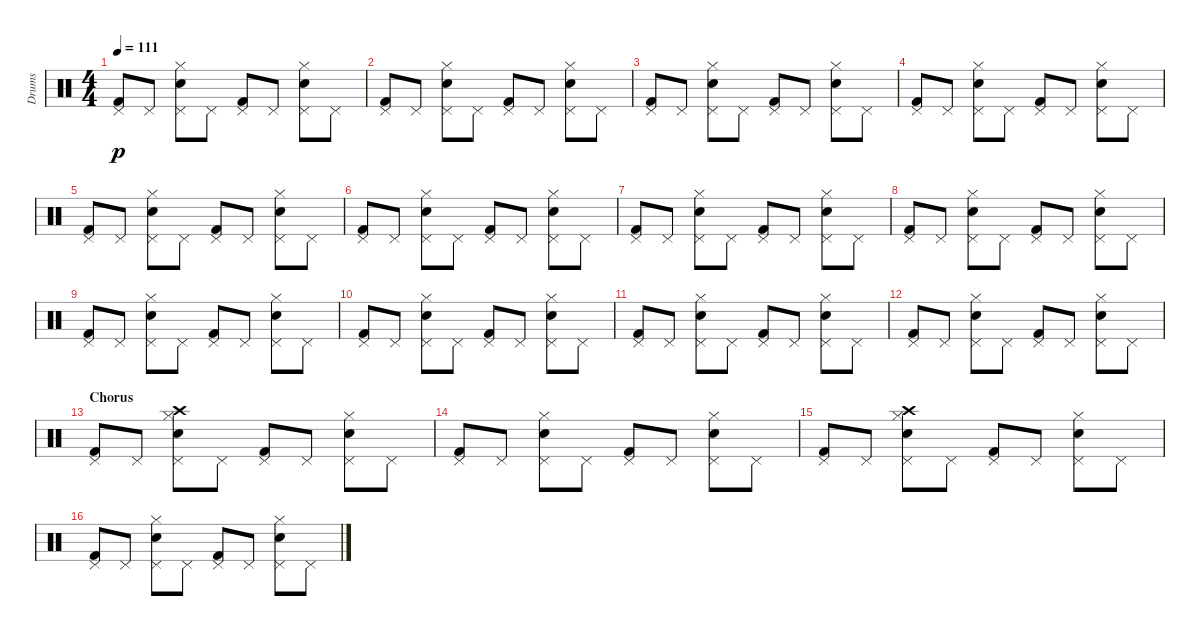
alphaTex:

\track ("Drums" "Drums") {instrument percussion}
\staff {score}
\articulation defaults
\ts (4 4)
\tempo 111
\clef neutral
\ks c
("Pedal Hi-Hat (hit)" "Kick (hit) 2").8{dy p} "Pedal Hi-Hat (hit)".8 ("Pedal Hi-Hat (hit)" "Hand Clap (hit)" "Hi-Hat (closed)").8 "Pedal Hi-Hat (hit)".8 ("Pedal Hi-Hat (hit)" "Kick (hit) 2").8 "Pedal Hi-Hat (hit)".8 ("Pedal Hi-Hat (hit)" "Hand Clap (hit)" "Hi-Hat (closed)").8 "Pedal Hi-Hat (hit)".8 |
("Pedal Hi-Hat (hit)" "Kick (hit) 2").8 "Pedal Hi-Hat (hit)".8 ("Pedal Hi-Hat (hit)" "Hand Clap (hit)" "Hi-Hat (closed)").8 "Pedal Hi-Hat (hit)".8 ("Pedal Hi-Hat (hit)" "Kick (hit) 2").8 "Pedal Hi-Hat (hit)".8 ("Pedal Hi-Hat (hit)" "Hand Clap (hit)" "Hi-Hat (closed)").8 "Pedal Hi-Hat (hit)".8 |
("Pedal Hi-Hat (hit)" "Kick (hit) 2").8 "Pedal Hi-Hat (hit)".8 ("Pedal Hi-Hat (hit)" "Hand Clap (hit)" "Hi-Hat (closed)").8 "Pedal Hi-Hat (hit)".8 ("Pedal Hi-Hat (hit)" "Kick (hit) 2").8 "Pedal Hi-Hat (hit)".8 ("Pedal Hi-Hat (hit)" "Hand Clap (hit)" "Hi-Hat (closed)").8 "Pedal Hi-Hat (hit)".8 |
("Pedal Hi-Hat (hit)" "Kick (hit) 2").8 "Pedal Hi-Hat (hit)".8 ("Pedal Hi-Hat (hit)" "Hand Clap (hit)" "Hi-Hat (closed)").8 "Pedal Hi-Hat (hit)".8 ("Pedal Hi-Hat (hit)" "Kick (hit) 2").8 "Pedal Hi-Hat (hit)".8 ("Pedal Hi-Hat (hit)" "Hand Clap (hit)" "Hi-Hat (closed)").8 "Pedal Hi-Hat (hit)".8 |
("Pedal Hi-Hat (hit)" "Kick (hit) 2").8 "Pedal Hi-Hat (hit)".8 ("Pedal Hi-Hat (hit)" "Hand Clap (hit)" "Hi-Hat (closed)").8 "Pedal Hi-Hat (hit)".8 ("Pedal Hi-Hat (hit)" "Kick (hit) 2").8 "Pedal Hi-Hat (hit)".8 ("Pedal Hi-Hat (hit)" "Hand Clap (hit)" "Hi-Hat (closed)").8 "Pedal Hi-Hat (hit)".8 |
("Pedal Hi-Hat (hit)" "Kick (hit) 2").8 "Pedal Hi-Hat (hit)".8 ("Pedal Hi-Hat (hit)" "Hand Clap (hit)" "Hi-Hat (closed)").8 "Pedal Hi-Hat (hit)".8 ("Pedal Hi-Hat (hit)" "Kick (hit) 2").8 "Pedal Hi-Hat (hit)".8 ("Pedal Hi-Hat (hit)" "Hand Clap (hit)" "Hi-Hat (closed)").8 "Pedal Hi-Hat (hit)".8 |
("Pedal Hi-Hat (hit)" "Kick (hit) 2").8 "Pedal Hi-Hat (hit)".8 ("Pedal Hi-Hat (hit)" "Hand Clap (hit)" "Hi-Hat (closed)").8 "Pedal Hi-Hat (hit)".8 ("Pedal Hi-Hat (hit)" "Kick (hit) 2").8 "Pedal Hi-Hat (hit)".8 ("Pedal Hi-Hat (hit)" "Hand Clap (hit)" "Hi-Hat (closed)").8 "Pedal Hi-Hat (hit)".8 |
("Pedal Hi-Hat (hit)" "Kick (hit) 2").8 "Pedal Hi-Hat (hit)".8 ("Pedal Hi-Hat (hit)" "Hand Clap (hit)" "Hi-Hat (closed)").8 "Pedal Hi-Hat (hit)".8 ("Pedal Hi-Hat (hit)" "Kick (hit) 2").8 "Pedal Hi-Hat (hit)".8 ("Pedal Hi-Hat (hit)" "Hand Clap (hit)" "Hi-Hat (closed)").8 "Pedal Hi-Hat (hit)".8 |
("Pedal Hi-Hat (hit)" "Kick (hit) 2").8 "Pedal Hi-Hat (hit)".8 ("Pedal Hi-Hat (hit)" "Hand Clap (hit)" "Hi-Hat (closed)").8 "Pedal Hi-Hat (hit)".8 ("Pedal Hi-Hat (hit)" "Kick (hit) 2").8 "Pedal Hi-Hat (hit)".8 ("Pedal Hi-Hat (hit)" "Hand Clap (hit)" "Hi-Hat (closed)").8 "Pedal Hi-Hat (hit)".8 |
("Pedal Hi-Hat (hit)" "Kick (hit) 2").8 "Pedal Hi-Hat (hit)".8 ("Pedal Hi-Hat (hit)" "Hand Clap (hit)" "Hi-Hat (closed)").8 "Pedal Hi-Hat (hit)".8 ("Pedal Hi-Hat (hit)" "Kick (hit) 2").8 "Pedal Hi-Hat (hit)".8 ("Pedal Hi-Hat (hit)" "Hand Clap (hit)" "Hi-Hat (closed)").8 "Pedal Hi-Hat (hit)".8 |
("Pedal Hi-Hat (hit)" "Kick (hit) 2").8 "Pedal Hi-Hat (hit)".8 ("Pedal Hi-Hat (hit)" "Hand Clap (hit)" "Hi-Hat (closed)").8 "Pedal Hi-Hat (hit)".8 ("Pedal Hi-Hat (hit)" "Kick (hit) 2").8 "Pedal Hi-Hat (hit)".8 ("Pedal Hi-Hat (hit)" "Hand Clap (hit)" "Hi-Hat (closed)").8 "Pedal Hi-Hat (hit)".8 |
("Pedal Hi-Hat (hit)" "Kick (hit) 2").8 "Pedal Hi-Hat (hit)".8 ("Pedal Hi-Hat (hit)" "Hand Clap (hit)" "Hi-Hat (closed)").8 "Pedal Hi-Hat (hit)".8 ("Pedal Hi-Hat (hit)" "Kick (hit) 2").8 "Pedal Hi-Hat (hit)".8 ("Pedal Hi-Hat (hit)" "Hand Clap (hit)" "Hi-Hat (closed)").8 "Pedal Hi-Hat (hit)".8 |
\section ("" "Chorus")
("Pedal Hi-Hat (hit)" "Kick (hit) 2").8 "Pedal Hi-Hat (hit)".8 ("Pedal Hi-Hat (hit)" "Hand Clap (hit)" "Hi-Hat (closed)" "Crash high (hit)").8 "Pedal Hi-Hat (hit)".8 ("Pedal Hi-Hat (hit)" "Kick (hit) 2").8 "Pedal Hi-Hat (hit)".8 ("Pedal Hi-Hat (hit)" "Hand Clap (hit)" "Hi-Hat (closed)").8 "Pedal Hi-Hat (hit)".8 |
("Pedal Hi-Hat (hit)" "Kick (hit) 2").8 "Pedal Hi-Hat (hit)".8 ("Pedal Hi-Hat (hit)" "Hand Clap (hit)" "Hi-Hat (closed)").8 "Pedal Hi-Hat (hit)".8 ("Pedal Hi-Hat (hit)" "Kick (hit) 2").8 "Pedal Hi-Hat (hit)".8 ("Pedal Hi-Hat (hit)" "Hand Clap (hit)" "Hi-Hat (closed)").8 "Pedal Hi-Hat (hit)".8 |
("Pedal Hi-Hat (hit)" "Kick (hit) 2").8 "Pedal Hi-Hat (hit)".8 ("Pedal Hi-Hat (hit)" "Hand Clap (hit)" "Hi-Hat (closed)" "Crash high (hit)").8 "Pedal Hi-Hat (hit)".8 ("Pedal Hi-Hat (hit)" "Kick (hit) 2").8 "Pedal Hi-Hat (hit)".8 ("Pedal Hi-Hat (hit)" "Hand Clap (hit)" "Hi-Hat (closed)").8 "Pedal Hi-Hat (hit)".8 |
("Pedal Hi-Hat (hit)" "Kick (hit) 2").8 "Pedal Hi-Hat (hit)".8 ("Pedal Hi-Hat (hit)" "Hand Clap (hit)" "Hi-Hat (closed)").8 "Pedal Hi-Hat (hit)".8 ("Pedal Hi-Hat (hit)" "Kick (hit) 2").8 "Pedal Hi-Hat (hit)".8 ("Pedal Hi-Hat (hit)" "Hand Clap (hit)" "Hi-Hat (closed)").8 "Pedal Hi-Hat (hit)".8
